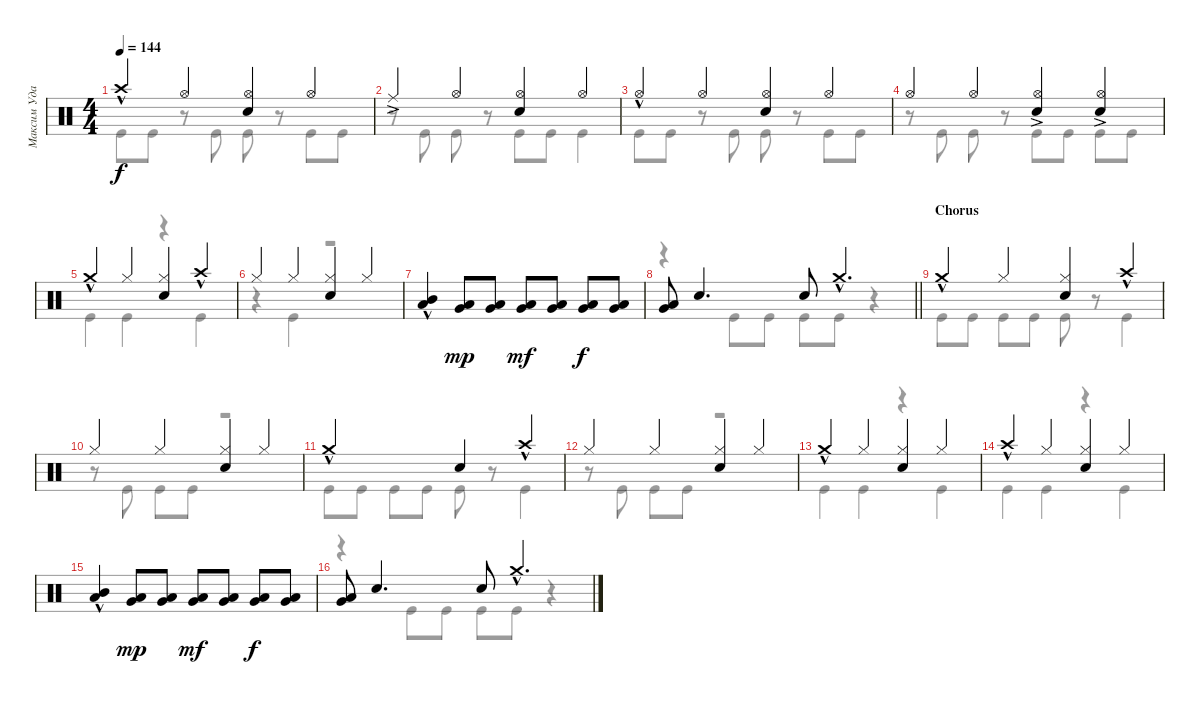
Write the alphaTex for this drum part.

\track ("Максим Удалов" "Максим Уда") {instrument percussion}
\staff {score}
\articulation defaults
\voice
\ts (4 4)
\tempo 144
\clef neutral
\ks c "Crash high (hit)"{hac}.4{dy f} "Hi-Hat (open)".4
("Hi-Hat (open)" "Snare (hit) 2").4 "Hi-Hat (open)".4 |
"Ride (middle)"{ac}.4 "Hi-Hat (open)".4 ("Hi-Hat (open)" "Snare (hit) 2").4 "Hi-Hat (open)".4 |
"Hi-Hat (open)"{hac}.4 "Hi-Hat (open)".4 ("Hi-Hat (open)" "Snare (hit) 2").4 "Hi-Hat (open)".4 |
"Hi-Hat (open)".4 "Hi-Hat (open)".4 ("Hi-Hat (open)"{ac} "Snare (hit) 2").4 ("Hi-Hat (open)"{ac} "Snare (hit) 2").4 |
"Crash medium (hit)"{hac}.4 "Hi-Hat (closed)".4 ("Hi-Hat (closed)" "Snare (hit) 2").4 "Crash high (hit)"{hac}.4 |
"Hi-Hat (closed)".4 "Hi-Hat (closed)".4 ("Hi-Hat (closed)" "Snare (hit) 2").4 "Hi-Hat (closed)".4 |
("Low Tom (hit)"{hac} "Mid Tom (hit)"{hac}).4 ("Low Tom (hit)" "Very Low Tom (hit)").8{dy mp} ("Low Tom (hit)" "Very Low Tom (hit)").8 ("Low Tom (hit)" "Very Low Tom (hit)").8{dy mf} ("Low Tom (hit)" "Very Low Tom (hit)").8 ("Low Tom (hit)" "Very Low Tom (hit)").8{dy f} ("Low Tom (hit)" "Very Low Tom (hit)").8 |
\barLineRight lightlight
("Low Tom (hit)" "Very Low Tom (hit)").8 "Snare (hit) 2".4{d} "Snare (hit) 2".8 "Crash medium (hit)"{hac}.4{d} |
\section ("" "Chorus")
"Crash medium (hit)"{hac}.4 "Hi-Hat (closed)".4 ("Snare (hit) 2" "Hi-Hat (closed)").4 "Crash high (hit)"{hac}.4 |
"Hi-Hat (closed)".4 "Hi-Hat (closed)".4 ("Hi-Hat (closed)" "Snare (hit) 2").4 "Hi-Hat (closed)".4 |
"Crash medium (hit)"{hac}.2 "Snare (hit) 2".4 "Crash high (hit)"{hac}.4 |
"Hi-Hat (closed)".4 "Hi-Hat (closed)".4 ("Hi-Hat (closed)" "Snare (hit) 2").4 "Hi-Hat (closed)".4 |
"Crash medium (hit)"{hac}.4 "Hi-Hat (closed)".4 ("Hi-Hat (closed)" "Snare (hit) 2").4 "Hi-Hat (closed)".4 |
"Crash high (hit)"{hac}.4 "Hi-Hat (closed)".4 ("Hi-Hat (closed)" "Snare (hit) 2").4 "Hi-Hat (closed)".4 |
("Low Tom (hit)"{hac} "Mid Tom (hit)"{hac}).4 ("Low Tom (hit)" "Very Low Tom (hit)").8{dy mp} ("Low Tom (hit)" "Very Low Tom (hit)").8 ("Low Tom (hit)" "Very Low Tom (hit)").8{dy mf} ("Low Tom (hit)" "Very Low Tom (hit)").8 ("Low Tom (hit)" "Very Low Tom (hit)").8{dy f} ("Low Tom (hit)" "Very Low Tom (hit)").8 |
("Low Tom (hit)" "Very Low Tom (hit)").8 "Snare (hit) 2".4{d} "Snare (hit) 2".8 "Crash medium (hit)"{hac}.4{d}
\voice
\clef neutral
\ottava regular
\simile none
\ks c "Kick (hit)".8{dy f} "Kick (hit)".8
r.8 "Kick (hit)".8 "Kick (hit)".8 r.8 "Kick (hit)".8 "Kick (hit)".8 |
r.8 "Kick (hit)".8 "Kick (hit)".8 r.8 "Kick (hit)".8 "Kick (hit)".8 "Kick (hit)".4 |
"Kick (hit)".8 "Kick (hit)".8 r.8 "Kick (hit)".8 "Kick (hit)".8 r.8 "Kick (hit)".8 "Kick (hit)".8 |
r.8 "Kick (hit)".8 "Kick (hit)".8 r.8 "Kick (hit)".8 "Kick (hit)".8 "Kick (hit)".8 "Kick (hit)".8 |
"Kick (hit)".4 "Kick (hit)".4 r.4 "Kick (hit)".4 |
r.4 "Kick (hit)".4 r.2 |
|
\barLineRight lightlight
r.4 "Kick (hit)".8 "Kick (hit)".8 "Kick (hit)".8 "Kick (hit)".8 r.4 |
"Kick (hit)".8 "Kick (hit)".8 "Kick (hit)".8 "Kick (hit)".8 "Kick (hit)".8 r.8 "Kick (hit)".4 |
r.8 "Kick (hit)".8 "Kick (hit)".8 "Kick (hit)".8 r.2 |
"Kick (hit)".8 "Kick (hit)".8 "Kick (hit)".8 "Kick (hit)".8 "Kick (hit)".8 r.8 "Kick (hit)".4 |
r.8 "Kick (hit)".8 "Kick (hit)".8 "Kick (hit)".8 r.2 |
"Kick (hit)".4 "Kick (hit)".4 r.4 "Kick (hit)".4 |
"Kick (hit)".4 "Kick (hit)".4 r.4 "Kick (hit)".4 |
|
r.4 "Kick (hit)".8 "Kick (hit)".8 "Kick (hit)".8 "Kick (hit)".8 r.4
